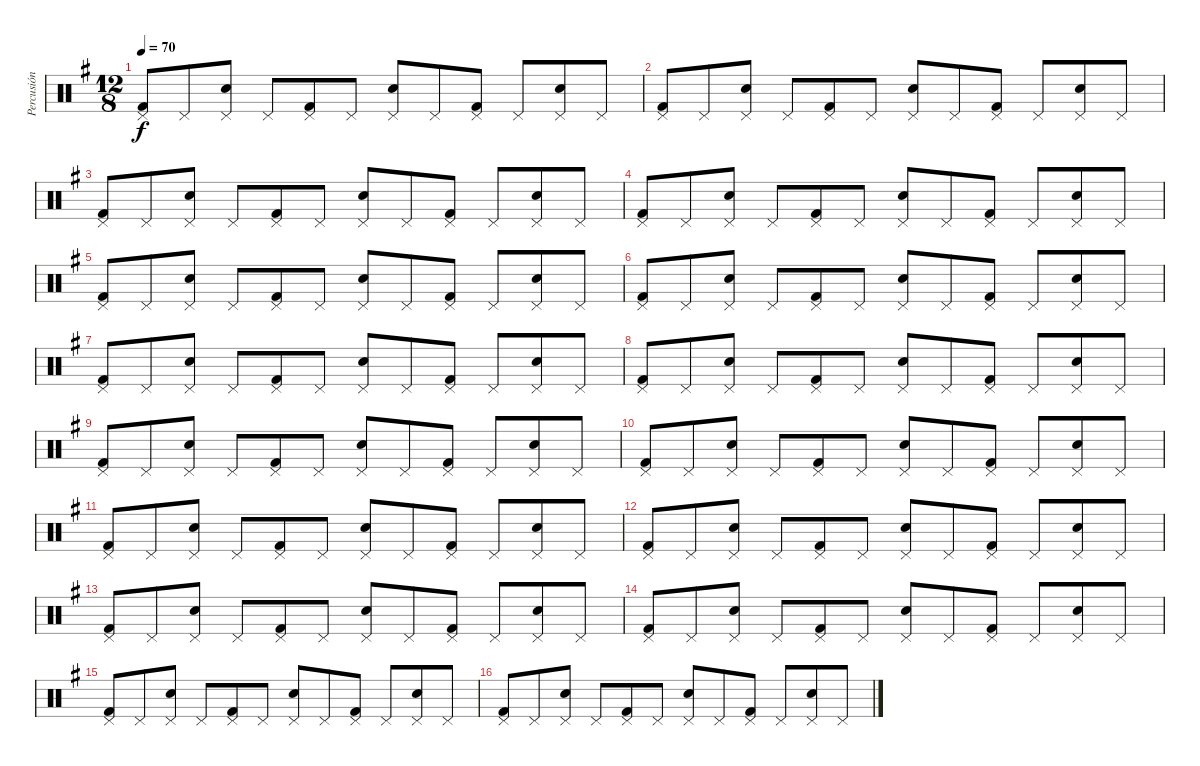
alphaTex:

\track ("Percusión" "Percusión") {mute instrument percussion}
\staff {score}
\articulation defaults
\ts (12 8)
\tempo 70
\clef neutral
\ks g
("Pedal Hi-Hat (hit)" "Kick (hit) 2").8{dy f} "Pedal Hi-Hat (hit)".8 ("Pedal Hi-Hat (hit)" "Snare (hit) 2").8 "Pedal Hi-Hat (hit)".8 ("Pedal Hi-Hat (hit)" "Kick (hit) 2").8 "Pedal Hi-Hat (hit)".8 ("Pedal Hi-Hat (hit)" "Snare (hit) 2").8 "Pedal Hi-Hat (hit)".8 ("Pedal Hi-Hat (hit)" "Kick (hit) 2").8 "Pedal Hi-Hat (hit)".8 ("Pedal Hi-Hat (hit)" "Snare (hit) 2").8 "Pedal Hi-Hat (hit)".8 |
("Pedal Hi-Hat (hit)" "Kick (hit) 2").8 "Pedal Hi-Hat (hit)".8 ("Pedal Hi-Hat (hit)" "Snare (hit) 2").8 "Pedal Hi-Hat (hit)".8 ("Pedal Hi-Hat (hit)" "Kick (hit) 2").8 "Pedal Hi-Hat (hit)".8 ("Pedal Hi-Hat (hit)" "Snare (hit) 2").8 "Pedal Hi-Hat (hit)".8 ("Pedal Hi-Hat (hit)" "Kick (hit) 2").8 "Pedal Hi-Hat (hit)".8 ("Pedal Hi-Hat (hit)" "Snare (hit) 2").8 "Pedal Hi-Hat (hit)".8 |
("Pedal Hi-Hat (hit)" "Kick (hit) 2").8 "Pedal Hi-Hat (hit)".8 ("Pedal Hi-Hat (hit)" "Snare (hit) 2").8 "Pedal Hi-Hat (hit)".8 ("Pedal Hi-Hat (hit)" "Kick (hit) 2").8 "Pedal Hi-Hat (hit)".8 ("Pedal Hi-Hat (hit)" "Snare (hit) 2").8 "Pedal Hi-Hat (hit)".8 ("Pedal Hi-Hat (hit)" "Kick (hit) 2").8 "Pedal Hi-Hat (hit)".8 ("Pedal Hi-Hat (hit)" "Snare (hit) 2").8 "Pedal Hi-Hat (hit)".8 |
("Pedal Hi-Hat (hit)" "Kick (hit) 2").8 "Pedal Hi-Hat (hit)".8 ("Pedal Hi-Hat (hit)" "Snare (hit) 2").8 "Pedal Hi-Hat (hit)".8 ("Pedal Hi-Hat (hit)" "Kick (hit) 2").8 "Pedal Hi-Hat (hit)".8 ("Pedal Hi-Hat (hit)" "Snare (hit) 2").8 "Pedal Hi-Hat (hit)".8 ("Pedal Hi-Hat (hit)" "Kick (hit) 2").8 "Pedal Hi-Hat (hit)".8 ("Pedal Hi-Hat (hit)" "Snare (hit) 2").8 "Pedal Hi-Hat (hit)".8 |
("Pedal Hi-Hat (hit)" "Kick (hit) 2").8 "Pedal Hi-Hat (hit)".8 ("Pedal Hi-Hat (hit)" "Snare (hit) 2").8 "Pedal Hi-Hat (hit)".8 ("Pedal Hi-Hat (hit)" "Kick (hit) 2").8 "Pedal Hi-Hat (hit)".8 ("Pedal Hi-Hat (hit)" "Snare (hit) 2").8 "Pedal Hi-Hat (hit)".8 ("Pedal Hi-Hat (hit)" "Kick (hit) 2").8 "Pedal Hi-Hat (hit)".8 ("Pedal Hi-Hat (hit)" "Snare (hit) 2").8 "Pedal Hi-Hat (hit)".8 |
("Pedal Hi-Hat (hit)" "Kick (hit) 2").8 "Pedal Hi-Hat (hit)".8 ("Pedal Hi-Hat (hit)" "Snare (hit) 2").8 "Pedal Hi-Hat (hit)".8 ("Pedal Hi-Hat (hit)" "Kick (hit) 2").8 "Pedal Hi-Hat (hit)".8 ("Pedal Hi-Hat (hit)" "Snare (hit) 2").8 "Pedal Hi-Hat (hit)".8 ("Pedal Hi-Hat (hit)" "Kick (hit) 2").8 "Pedal Hi-Hat (hit)".8 ("Pedal Hi-Hat (hit)" "Snare (hit) 2").8 "Pedal Hi-Hat (hit)".8 |
("Pedal Hi-Hat (hit)" "Kick (hit) 2").8 "Pedal Hi-Hat (hit)".8 ("Pedal Hi-Hat (hit)" "Snare (hit) 2").8 "Pedal Hi-Hat (hit)".8 ("Pedal Hi-Hat (hit)" "Kick (hit) 2").8 "Pedal Hi-Hat (hit)".8 ("Pedal Hi-Hat (hit)" "Snare (hit) 2").8 "Pedal Hi-Hat (hit)".8 ("Pedal Hi-Hat (hit)" "Kick (hit) 2").8 "Pedal Hi-Hat (hit)".8 ("Pedal Hi-Hat (hit)" "Snare (hit) 2").8 "Pedal Hi-Hat (hit)".8 |
("Pedal Hi-Hat (hit)" "Kick (hit) 2").8 "Pedal Hi-Hat (hit)".8 ("Pedal Hi-Hat (hit)" "Snare (hit) 2").8 "Pedal Hi-Hat (hit)".8 ("Pedal Hi-Hat (hit)" "Kick (hit) 2").8 "Pedal Hi-Hat (hit)".8 ("Pedal Hi-Hat (hit)" "Snare (hit) 2").8 "Pedal Hi-Hat (hit)".8 ("Pedal Hi-Hat (hit)" "Kick (hit) 2").8 "Pedal Hi-Hat (hit)".8 ("Pedal Hi-Hat (hit)" "Snare (hit) 2").8 "Pedal Hi-Hat (hit)".8 |
("Pedal Hi-Hat (hit)" "Kick (hit) 2").8 "Pedal Hi-Hat (hit)".8 ("Pedal Hi-Hat (hit)" "Snare (hit) 2").8 "Pedal Hi-Hat (hit)".8 ("Pedal Hi-Hat (hit)" "Kick (hit) 2").8 "Pedal Hi-Hat (hit)".8 ("Pedal Hi-Hat (hit)" "Snare (hit) 2").8 "Pedal Hi-Hat (hit)".8 ("Pedal Hi-Hat (hit)" "Kick (hit) 2").8 "Pedal Hi-Hat (hit)".8 ("Pedal Hi-Hat (hit)" "Snare (hit) 2").8 "Pedal Hi-Hat (hit)".8 |
("Pedal Hi-Hat (hit)" "Kick (hit) 2").8 "Pedal Hi-Hat (hit)".8 ("Pedal Hi-Hat (hit)" "Snare (hit) 2").8 "Pedal Hi-Hat (hit)".8 ("Pedal Hi-Hat (hit)" "Kick (hit) 2").8 "Pedal Hi-Hat (hit)".8 ("Pedal Hi-Hat (hit)" "Snare (hit) 2").8 "Pedal Hi-Hat (hit)".8 ("Pedal Hi-Hat (hit)" "Kick (hit) 2").8 "Pedal Hi-Hat (hit)".8 ("Pedal Hi-Hat (hit)" "Snare (hit) 2").8 "Pedal Hi-Hat (hit)".8 |
("Pedal Hi-Hat (hit)" "Kick (hit) 2").8 "Pedal Hi-Hat (hit)".8 ("Pedal Hi-Hat (hit)" "Snare (hit) 2").8 "Pedal Hi-Hat (hit)".8 ("Pedal Hi-Hat (hit)" "Kick (hit) 2").8 "Pedal Hi-Hat (hit)".8 ("Pedal Hi-Hat (hit)" "Snare (hit) 2").8 "Pedal Hi-Hat (hit)".8 ("Pedal Hi-Hat (hit)" "Kick (hit) 2").8 "Pedal Hi-Hat (hit)".8 ("Pedal Hi-Hat (hit)" "Snare (hit) 2").8 "Pedal Hi-Hat (hit)".8 |
("Pedal Hi-Hat (hit)" "Kick (hit) 2").8 "Pedal Hi-Hat (hit)".8 ("Pedal Hi-Hat (hit)" "Snare (hit) 2").8 "Pedal Hi-Hat (hit)".8 ("Pedal Hi-Hat (hit)" "Kick (hit) 2").8 "Pedal Hi-Hat (hit)".8 ("Pedal Hi-Hat (hit)" "Snare (hit) 2").8 "Pedal Hi-Hat (hit)".8 ("Pedal Hi-Hat (hit)" "Kick (hit) 2").8 "Pedal Hi-Hat (hit)".8 ("Pedal Hi-Hat (hit)" "Snare (hit) 2").8 "Pedal Hi-Hat (hit)".8 |
("Pedal Hi-Hat (hit)" "Kick (hit) 2").8 "Pedal Hi-Hat (hit)".8 ("Pedal Hi-Hat (hit)" "Snare (hit) 2").8 "Pedal Hi-Hat (hit)".8 ("Pedal Hi-Hat (hit)" "Kick (hit) 2").8 "Pedal Hi-Hat (hit)".8 ("Pedal Hi-Hat (hit)" "Snare (hit) 2").8 "Pedal Hi-Hat (hit)".8 ("Pedal Hi-Hat (hit)" "Kick (hit) 2").8 "Pedal Hi-Hat (hit)".8 ("Pedal Hi-Hat (hit)" "Snare (hit) 2").8 "Pedal Hi-Hat (hit)".8 |
("Pedal Hi-Hat (hit)" "Kick (hit) 2").8 "Pedal Hi-Hat (hit)".8 ("Pedal Hi-Hat (hit)" "Snare (hit) 2").8 "Pedal Hi-Hat (hit)".8 ("Pedal Hi-Hat (hit)" "Kick (hit) 2").8 "Pedal Hi-Hat (hit)".8 ("Pedal Hi-Hat (hit)" "Snare (hit) 2").8 "Pedal Hi-Hat (hit)".8 ("Pedal Hi-Hat (hit)" "Kick (hit) 2").8 "Pedal Hi-Hat (hit)".8 ("Pedal Hi-Hat (hit)" "Snare (hit) 2").8 "Pedal Hi-Hat (hit)".8 |
("Pedal Hi-Hat (hit)" "Kick (hit) 2").8 "Pedal Hi-Hat (hit)".8 ("Pedal Hi-Hat (hit)" "Snare (hit) 2").8 "Pedal Hi-Hat (hit)".8 ("Pedal Hi-Hat (hit)" "Kick (hit) 2").8 "Pedal Hi-Hat (hit)".8 ("Pedal Hi-Hat (hit)" "Snare (hit) 2").8 "Pedal Hi-Hat (hit)".8 ("Pedal Hi-Hat (hit)" "Kick (hit) 2").8 "Pedal Hi-Hat (hit)".8 ("Pedal Hi-Hat (hit)" "Snare (hit) 2").8 "Pedal Hi-Hat (hit)".8 |
("Pedal Hi-Hat (hit)" "Kick (hit) 2").8 "Pedal Hi-Hat (hit)".8 ("Pedal Hi-Hat (hit)" "Snare (hit) 2").8 "Pedal Hi-Hat (hit)".8 ("Pedal Hi-Hat (hit)" "Kick (hit) 2").8 "Pedal Hi-Hat (hit)".8 ("Pedal Hi-Hat (hit)" "Snare (hit) 2").8 "Pedal Hi-Hat (hit)".8 ("Pedal Hi-Hat (hit)" "Kick (hit) 2").8 "Pedal Hi-Hat (hit)".8 ("Pedal Hi-Hat (hit)" "Snare (hit) 2").8 "Pedal Hi-Hat (hit)".8
